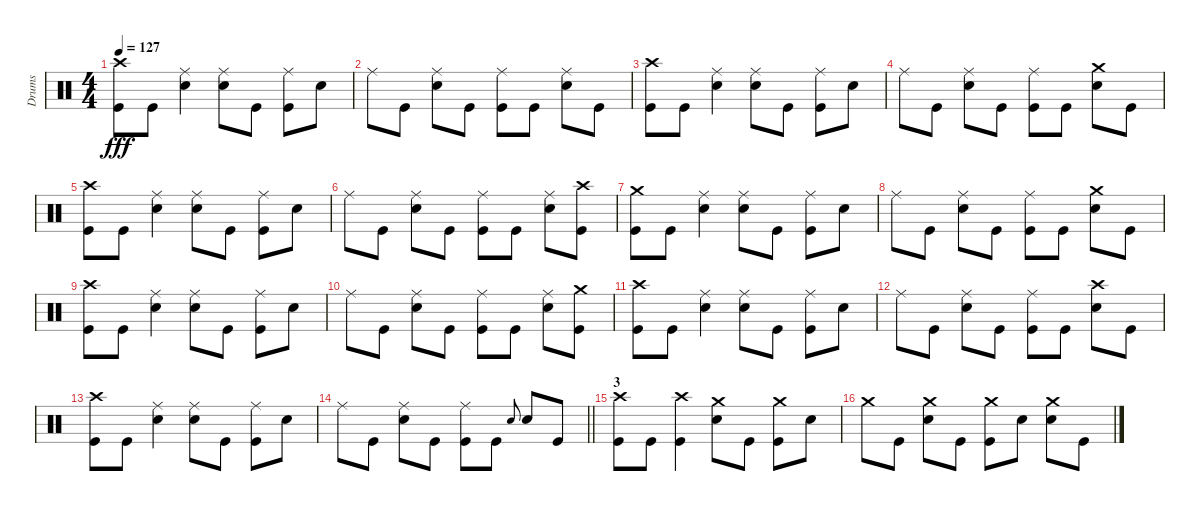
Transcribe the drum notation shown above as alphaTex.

\track ("Drums" "Drums") {instrument percussion}
\staff {score}
\articulation defaults
\ts (4 4)
\tempo 127
\clef neutral
\ks c
("Crash high (hit)" "Kick (hit)").8{dy fff} "Kick (hit)".8 ("Ride (middle)" "Snare (hit) 2").4 ("Ride (middle)" "Snare (hit) 2").8 "Kick (hit)".8 ("Ride (middle)" "Kick (hit)").8 "Snare (hit) 2".8 |
"Ride (middle)".8 "Kick (hit)".8 ("Ride (middle)" "Snare (hit) 2").8 "Kick (hit)".8 ("Ride (middle)" "Kick (hit)").8 "Kick (hit)".8 ("Ride (middle)" "Snare (hit) 2").8 "Kick (hit)".8 |
("Crash high (hit)" "Kick (hit)").8 "Kick (hit)".8 ("Ride (middle)" "Snare (hit) 2").4 ("Ride (middle)" "Snare (hit) 2").8 "Kick (hit)".8 ("Ride (middle)" "Kick (hit)").8 "Snare (hit) 2".8 |
"Ride (middle)".8 "Kick (hit)".8 ("Ride (middle)" "Snare (hit) 2").8 "Kick (hit)".8 ("Ride (middle)" "Kick (hit)").8 "Kick (hit)".8 ("Crash medium (hit)" "Snare (hit) 2").8 "Kick (hit)".8 |
("Crash high (hit)" "Kick (hit)").8 "Kick (hit)".8 ("Ride (middle)" "Snare (hit) 2").4 ("Ride (middle)" "Snare (hit) 2").8 "Kick (hit)".8 ("Ride (middle)" "Kick (hit)").8 "Snare (hit) 2".8 |
"Ride (middle)".8 "Kick (hit)".8 ("Ride (middle)" "Snare (hit) 2").8 "Kick (hit)".8 ("Ride (middle)" "Kick (hit)").8 "Kick (hit)".8 ("Ride (middle)" "Snare (hit) 2").8 ("Crash high (hit)" "Kick (hit)").8 |
("Crash medium (hit)" "Kick (hit)").8 "Kick (hit)".8 ("Ride (middle)" "Snare (hit) 2").4 ("Ride (middle)" "Snare (hit) 2").8 "Kick (hit)".8 ("Ride (middle)" "Kick (hit)").8 "Snare (hit) 2".8 |
"Ride (middle)".8 "Kick (hit)".8 ("Ride (middle)" "Snare (hit) 2").8 "Kick (hit)".8 ("Ride (middle)" "Kick (hit)").8 "Kick (hit)".8 ("Crash medium (hit)" "Snare (hit) 2").8 "Kick (hit)".8 |
("Crash high (hit)" "Kick (hit)").8 "Kick (hit)".8 ("Ride (middle)" "Snare (hit) 2").4 ("Ride (middle)" "Snare (hit) 2").8 "Kick (hit)".8 ("Ride (middle)" "Kick (hit)").8 "Snare (hit) 2".8 |
"Ride (middle)".8 "Kick (hit)".8 ("Ride (middle)" "Snare (hit) 2").8 "Kick (hit)".8 ("Ride (middle)" "Kick (hit)").8 "Kick (hit)".8 ("Ride (middle)" "Snare (hit) 2").8 ("Crash medium (hit)" "Kick (hit)").8 |
("Crash high (hit)" "Kick (hit)").8 "Kick (hit)".8 ("Ride (middle)" "Snare (hit) 2").4 ("Ride (middle)" "Snare (hit) 2").8 "Kick (hit)".8 ("Ride (middle)" "Kick (hit)").8 "Snare (hit) 2".8 |
"Ride (middle)".8 "Kick (hit)".8 ("Ride (middle)" "Snare (hit) 2").8 "Kick (hit)".8 ("Ride (middle)" "Kick (hit)").8 "Kick (hit)".8 ("Crash high (hit)" "Snare (hit) 2").8 "Kick (hit)".8 |
("Crash high (hit)" "Kick (hit)").8 "Kick (hit)".8 ("Ride (middle)" "Snare (hit) 2").4 ("Ride (middle)" "Snare (hit) 2").8 "Kick (hit)".8 ("Ride (middle)" "Kick (hit)").8 "Snare (hit) 2".8 |
\barLineRight lightlight "Ride (middle)".8 "Kick (hit)".8
("Ride (middle)" "Snare (hit) 2").8 "Kick (hit)".8 ("Ride (middle)" "Kick (hit)").8 "Kick (hit)".8 "Snare (hit) 2".8{gr onbeat} "Snare (hit) 2".8 "Kick (hit)".8 |
\section ("" "3")
("Crash high (hit)" "Kick (hit)").8 "Kick (hit)".8 ("Crash high (hit)" "Kick (hit)").4 ("Crash medium (hit)" "Snare (hit) 2").8 "Kick (hit)".8 ("Crash medium (hit)" "Kick (hit)").8 "Snare (hit) 2".8 |
"Crash medium (hit)".8 "Kick (hit)".8 ("Crash medium (hit)" "Snare (hit) 2").8 "Kick (hit)".8 ("Crash medium (hit)" "Kick (hit)").8 "Snare (hit) 2".8 ("Crash medium (hit)" "Snare (hit) 2").8 "Kick (hit)".8
